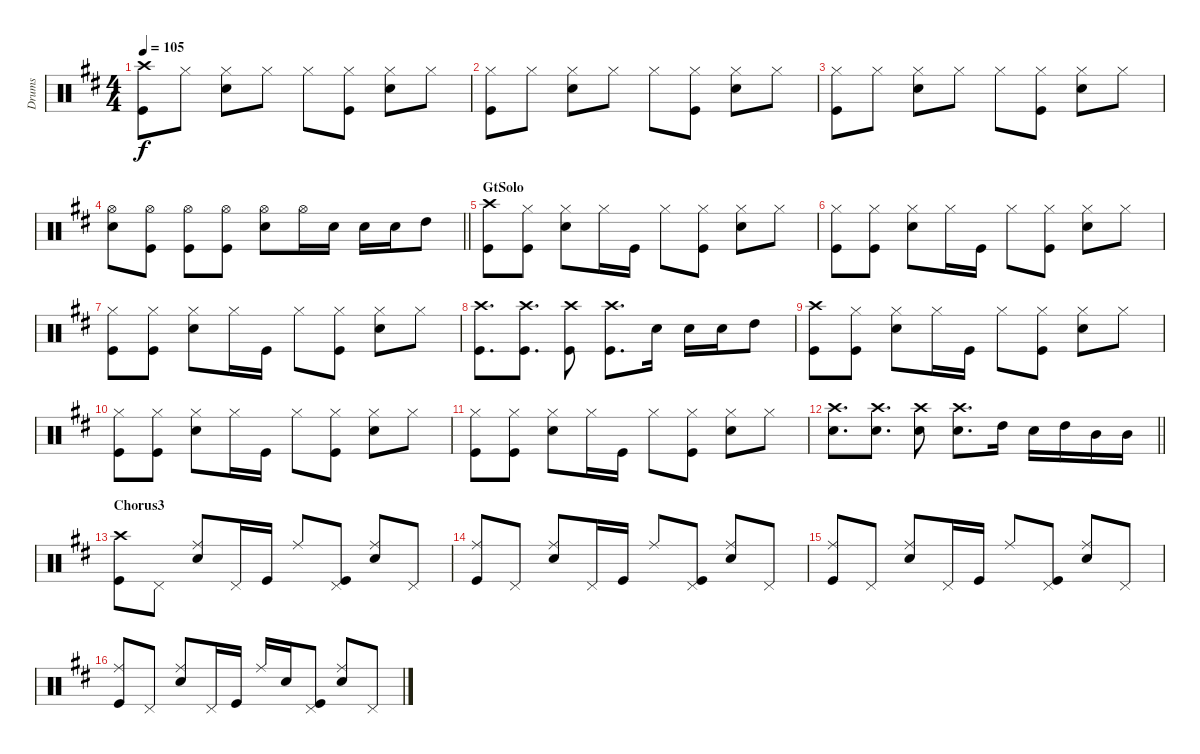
\track ("Drums" "Drums") {instrument percussion}
\staff {score}
\articulation defaults
\ts (4 4)
\tempo 105
\clef neutral
\ks d
("Crash high (hit)" "Kick (hit)").8{dy f} "Hi-Hat (closed)".8 ("Hi-Hat (closed)" "Snare (hit) 2").8 "Hi-Hat (closed)".8 "Hi-Hat (closed)".8 ("Hi-Hat (closed)" "Kick (hit)").8 ("Hi-Hat (closed)" "Snare (hit) 2").8 "Hi-Hat (closed)".8 |
("Hi-Hat (closed)" "Kick (hit)").8 "Hi-Hat (closed)".8 ("Hi-Hat (closed)" "Snare (hit) 2").8 "Hi-Hat (closed)".8 "Hi-Hat (closed)".8 ("Hi-Hat (closed)" "Kick (hit)").8 ("Hi-Hat (closed)" "Snare (hit) 2").8 "Hi-Hat (closed)".8 |
("Hi-Hat (closed)" "Kick (hit)").8 "Hi-Hat (closed)".8 ("Hi-Hat (closed)" "Snare (hit) 2").8 "Hi-Hat (closed)".8 "Hi-Hat (closed)".8 ("Hi-Hat (closed)" "Kick (hit)").8 ("Hi-Hat (closed)" "Snare (hit) 2").8 "Hi-Hat (closed)".8 |
\barLineRight lightlight
("Hi-Hat (open)" "Snare (hit) 2").8 ("Hi-Hat (open)" "Kick (hit)").8 ("Hi-Hat (open)" "Kick (hit)").8 ("Hi-Hat (open)" "Kick (hit)").8 ("Snare (hit) 2" "Hi-Hat (open)").8 "Hi-Hat (open)".16 "Snare (hit) 2".16 "Snare (hit) 2".16 "Snare (hit) 2".16 "High Tom (hit)".8 |
\section ("" "GtSolo")
("Crash high (hit)" "Kick (hit)").8 ("Hi-Hat (closed)" "Kick (hit)").8 ("Hi-Hat (closed)" "Snare (hit) 2").8 "Hi-Hat (closed)".16 "Kick (hit)".16 "Hi-Hat (closed)".8 ("Hi-Hat (closed)" "Kick (hit)").8 ("Hi-Hat (closed)" "Snare (hit) 2").8 "Hi-Hat (closed)".8 |
("Hi-Hat (closed)" "Kick (hit)").8 ("Hi-Hat (closed)" "Kick (hit)").8 ("Hi-Hat (closed)" "Snare (hit) 2").8 "Hi-Hat (closed)".16 "Kick (hit)".16 "Hi-Hat (closed)".8 ("Hi-Hat (closed)" "Kick (hit)").8 ("Hi-Hat (closed)" "Snare (hit) 2").8 "Hi-Hat (closed)".8 |
("Hi-Hat (closed)" "Kick (hit)").8 ("Hi-Hat (closed)" "Kick (hit)").8 ("Hi-Hat (closed)" "Snare (hit) 2").8 "Hi-Hat (closed)".16 "Kick (hit)".16 "Hi-Hat (closed)".8 ("Hi-Hat (closed)" "Kick (hit)").8 ("Hi-Hat (closed)" "Snare (hit) 2").8 "Hi-Hat (closed)".8 |
("Crash high (hit)" "Kick (hit)").8{d} ("Crash high (hit)" "Kick (hit)").8{d} ("Crash high (hit)" "Kick (hit)").8 ("Crash high (hit)" "Kick (hit)").8{d} "Snare (hit) 2".16 "Snare (hit) 2".16 "Snare (hit) 2".16 "High Tom (hit)".8 |
("Crash high (hit)" "Kick (hit)").8 ("Hi-Hat (closed)" "Kick (hit)").8 ("Hi-Hat (closed)" "Snare (hit) 2").8 "Hi-Hat (closed)".16 "Kick (hit)".16 "Hi-Hat (closed)".8 ("Hi-Hat (closed)" "Kick (hit)").8 ("Hi-Hat (closed)" "Snare (hit) 2").8 "Hi-Hat (closed)".8 |
("Hi-Hat (closed)" "Kick (hit)").8 ("Hi-Hat (closed)" "Kick (hit)").8 ("Hi-Hat (closed)" "Snare (hit) 2").8 "Hi-Hat (closed)".16 "Kick (hit)".16 "Hi-Hat (closed)".8 ("Hi-Hat (closed)" "Kick (hit)").8 ("Hi-Hat (closed)" "Snare (hit) 2").8 "Hi-Hat (closed)".8 |
("Hi-Hat (closed)" "Kick (hit)").8 ("Hi-Hat (closed)" "Kick (hit)").8 ("Hi-Hat (closed)" "Snare (hit) 2").8 "Hi-Hat (closed)".16 "Kick (hit)".16 "Hi-Hat (closed)".8 ("Hi-Hat (closed)" "Kick (hit)").8 ("Hi-Hat (closed)" "Snare (hit) 2").8 "Hi-Hat (closed)".8 |
\barLineRight lightlight
("Crash high (hit)" "Snare (hit) 2").8{d} ("Crash high (hit)" "Snare (hit) 2").8{d} ("Crash high (hit)" "Snare (hit) 2").8 ("Crash high (hit)" "Snare (hit) 2").8{d} "High Tom (hit)".16 "Snare (hit) 2".16 "High Tom (hit)".16 "Mid Tom (hit)".16 "Mid Tom (hit)".16 |
\section ("" "Chorus3")
("Crash high (hit)" "Kick (hit)").8 "Pedal Hi-Hat (hit)".8 ("Ride (middle)" "Snare (hit) 2").8 "Pedal Hi-Hat (hit)".16 "Kick (hit)".16 "Ride (middle)".8 ("Kick (hit)" "Pedal Hi-Hat (hit)").8 ("Snare (hit) 2" "Ride (middle)").8 "Pedal Hi-Hat (hit)".8 |
("Ride (middle)" "Kick (hit)").8 "Pedal Hi-Hat (hit)".8 ("Ride (middle)" "Snare (hit) 2").8 "Pedal Hi-Hat (hit)".16 "Kick (hit)".16 "Ride (middle)".8 ("Kick (hit)" "Pedal Hi-Hat (hit)").8 ("Snare (hit) 2" "Ride (middle)").8 "Pedal Hi-Hat (hit)".8 |
("Ride (middle)" "Kick (hit)").8 "Pedal Hi-Hat (hit)".8 ("Ride (middle)" "Snare (hit) 2").8 "Pedal Hi-Hat (hit)".16 "Kick (hit)".16 "Ride (middle)".8 ("Kick (hit)" "Pedal Hi-Hat (hit)").8 ("Snare (hit) 2" "Ride (middle)").8 "Pedal Hi-Hat (hit)".8 |
("Ride (middle)" "Kick (hit)").8 "Pedal Hi-Hat (hit)".8 ("Ride (middle)" "Snare (hit) 2").8 "Pedal Hi-Hat (hit)".16 "Kick (hit)".16 "Ride (middle)".16 "Snare (hit) 2".16 ("Kick (hit)" "Pedal Hi-Hat (hit)").8 ("Ride (middle)" "Snare (hit) 2").8 "Pedal Hi-Hat (hit)".8
